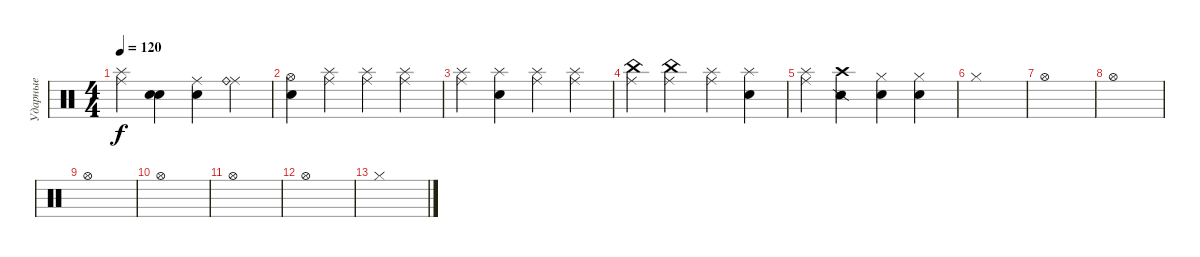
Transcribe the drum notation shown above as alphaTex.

\track ("Ударные" "Ударные") {instrument percussion}
\staff {score}
\articulation defaults
\ts (4 4)
\tempo 120
\clef neutral
\ks c
("Ride (middle)" "Splash (hit)").4{dy f} ("Snare (hit) 2" "Snare (hit) 2").4 ("Ride (middle)" "Snare (hit) 2").4 ("Ride (middle)" "Ride (bell)").4 |
("Snare (hit) 2" "Hi-Hat (open)").4 ("Ride (middle)" "Splash (hit)").4 ("Ride (middle)" "Splash (hit)").4 ("Ride (middle)" "Splash (hit)").4 |
("Ride (middle)" "Splash (hit)").4 ("Snare (hit) 2" "Splash (hit)").4 ("Ride (middle)" "Splash (hit)").4 ("Ride (middle)" "Splash (hit)").4 |
("Ride (middle)" "China (hit)").4 ("Ride (middle)" "China (hit)").4 ("Ride (middle)" "Splash (hit)").4 ("Snare (hit) 2" "Splash (hit)").4 |
("Ride (middle)" "Splash (hit)").4 ("Crash high (hit)" "Snare (side stick) 2").4 ("Hi-Hat (closed)" "Snare (hit) 2").4 ("Hi-Hat (closed)" "Snare (hit) 2").4 |
"Hi-Hat (closed)".1 |
"Hi-Hat (open)".1 |
"Hi-Hat (open)".1 |
"Hi-Hat (open)".1 |
"Hi-Hat (open)".1 |
"Hi-Hat (open)".1 |
"Hi-Hat (open)".1 |
"Hi-Hat (closed)".1
